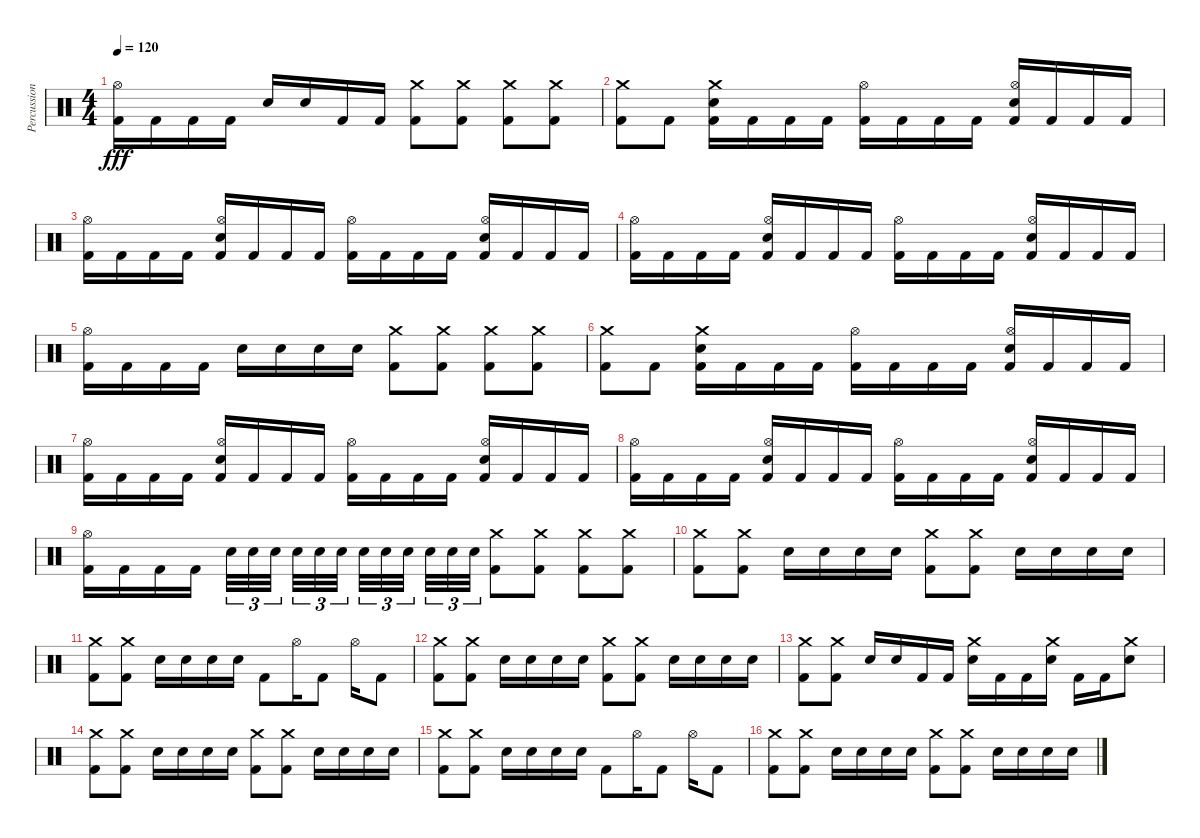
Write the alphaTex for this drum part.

\track ("Percussion" "Percussion") {instrument percussion}
\staff {score}
\articulation defaults
\ts (4 4)
\tempo 120
\clef neutral
\ks c
("Kick (hit) 2" "Hi-Hat (open)").16{dy fff} "Kick (hit) 2".16 "Kick (hit) 2".16 "Kick (hit) 2".16 "Electric Snare (hit)".16 "Electric Snare (hit)".16 "Kick (hit) 2".16 "Kick (hit) 2".16 ("Kick (hit) 2" "Crash medium (hit)").8 ("Kick (hit) 2" "Crash medium (hit)").8 ("Kick (hit) 2" "Crash medium (hit)").8 ("Kick (hit) 2" "Crash medium (hit)").8 |
("Kick (hit) 2" "Crash medium (hit)").8 "Kick (hit) 2".8 ("Kick (hit) 2" "Electric Snare (hit)" "Crash medium (hit)").16 "Kick (hit) 2".16 "Kick (hit) 2".16 "Kick (hit) 2".16 ("Kick (hit) 2" "Hi-Hat (open)").16 "Kick (hit) 2".16 "Kick (hit) 2".16 "Kick (hit) 2".16 ("Kick (hit) 2" "Electric Snare (hit)" "Hi-Hat (open)").16 "Kick (hit) 2".16 "Kick (hit) 2".16 "Kick (hit) 2".16 |
("Kick (hit) 2" "Hi-Hat (open)").16 "Kick (hit) 2".16 "Kick (hit) 2".16 "Kick (hit) 2".16 ("Kick (hit) 2" "Electric Snare (hit)" "Hi-Hat (open)").16 "Kick (hit) 2".16 "Kick (hit) 2".16 "Kick (hit) 2".16 ("Kick (hit) 2" "Hi-Hat (open)").16 "Kick (hit) 2".16 "Kick (hit) 2".16 "Kick (hit) 2".16 ("Kick (hit) 2" "Electric Snare (hit)" "Hi-Hat (open)").16 "Kick (hit) 2".16 "Kick (hit) 2".16 "Kick (hit) 2".16 |
("Kick (hit) 2" "Hi-Hat (open)").16 "Kick (hit) 2".16 "Kick (hit) 2".16 "Kick (hit) 2".16 ("Kick (hit) 2" "Electric Snare (hit)" "Hi-Hat (open)").16 "Kick (hit) 2".16 "Kick (hit) 2".16 "Kick (hit) 2".16 ("Kick (hit) 2" "Hi-Hat (open)").16 "Kick (hit) 2".16 "Kick (hit) 2".16 "Kick (hit) 2".16 ("Kick (hit) 2" "Electric Snare (hit)" "Hi-Hat (open)").16 "Kick (hit) 2".16 "Kick (hit) 2".16 "Kick (hit) 2".16 |
("Kick (hit) 2" "Hi-Hat (open)").16 "Kick (hit) 2".16 "Kick (hit) 2".16 "Kick (hit) 2".16 "Electric Snare (hit)".16 "Electric Snare (hit)".16 "Electric Snare (hit)".16 "Electric Snare (hit)".16 ("Kick (hit) 2" "Crash medium (hit)").8 ("Kick (hit) 2" "Crash medium (hit)").8 ("Kick (hit) 2" "Crash medium (hit)").8 ("Kick (hit) 2" "Crash medium (hit)").8 |
("Kick (hit) 2" "Crash medium (hit)").8 "Kick (hit) 2".8 ("Kick (hit) 2" "Electric Snare (hit)" "Crash medium (hit)").16 "Kick (hit) 2".16 "Kick (hit) 2".16 "Kick (hit) 2".16 ("Kick (hit) 2" "Hi-Hat (open)").16 "Kick (hit) 2".16 "Kick (hit) 2".16 "Kick (hit) 2".16 ("Kick (hit) 2" "Electric Snare (hit)" "Hi-Hat (open)").16 "Kick (hit) 2".16 "Kick (hit) 2".16 "Kick (hit) 2".16 |
("Kick (hit) 2" "Hi-Hat (open)").16 "Kick (hit) 2".16 "Kick (hit) 2".16 "Kick (hit) 2".16 ("Kick (hit) 2" "Electric Snare (hit)" "Hi-Hat (open)").16 "Kick (hit) 2".16 "Kick (hit) 2".16 "Kick (hit) 2".16 ("Kick (hit) 2" "Hi-Hat (open)").16 "Kick (hit) 2".16 "Kick (hit) 2".16 "Kick (hit) 2".16 ("Kick (hit) 2" "Electric Snare (hit)" "Hi-Hat (open)").16 "Kick (hit) 2".16 "Kick (hit) 2".16 "Kick (hit) 2".16 |
("Kick (hit) 2" "Hi-Hat (open)").16 "Kick (hit) 2".16 "Kick (hit) 2".16 "Kick (hit) 2".16 ("Kick (hit) 2" "Electric Snare (hit)" "Hi-Hat (open)").16 "Kick (hit) 2".16 "Kick (hit) 2".16 "Kick (hit) 2".16 ("Kick (hit) 2" "Hi-Hat (open)").16 "Kick (hit) 2".16 "Kick (hit) 2".16 "Kick (hit) 2".16 ("Kick (hit) 2" "Electric Snare (hit)" "Hi-Hat (open)").16 "Kick (hit) 2".16 "Kick (hit) 2".16 "Kick (hit) 2".16 |
("Kick (hit) 2" "Hi-Hat (open)").16 "Kick (hit) 2".16 "Kick (hit) 2".16 "Kick (hit) 2".16 "Electric Snare (hit)".32{tu (3 2)} "Electric Snare (hit)".32{tu (3 2)} "Electric Snare (hit)".32{tu (3 2)} "Electric Snare (hit)".32{tu (3 2)} "Electric Snare (hit)".32{tu (3 2)} "Electric Snare (hit)".32{tu (3 2)} "Electric Snare (hit)".32{tu (3 2)} "Electric Snare (hit)".32{tu (3 2)} "Electric Snare (hit)".32{tu (3 2)} "Electric Snare (hit)".32{tu (3 2)} "Electric Snare (hit)".32{tu (3 2)} "Electric Snare (hit)".32{tu (3 2)} ("Kick (hit) 2" "Crash medium (hit)").8 ("Kick (hit) 2" "Crash medium (hit)").8 ("Kick (hit) 2" "Crash medium (hit)").8 ("Kick (hit) 2" "Crash medium (hit)").8 |
("Kick (hit) 2" "Crash medium (hit)").8 ("Kick (hit) 2" "Crash medium (hit)").8 "Electric Snare (hit)".16 "Electric Snare (hit)".16 "Electric Snare (hit)".16 "Electric Snare (hit)".16 ("Kick (hit) 2" "Crash medium (hit)").8 ("Kick (hit) 2" "Crash medium (hit)").8 "Electric Snare (hit)".16 "Electric Snare (hit)".16 "Electric Snare (hit)".16 "Electric Snare (hit)".16 |
("Kick (hit) 2" "Crash medium (hit)").8 ("Kick (hit) 2" "Crash medium (hit)").8 "Electric Snare (hit)".16 "Electric Snare (hit)".16 "Electric Snare (hit)".16 "Electric Snare (hit)".16 "Kick (hit) 2".8 "Hi-Hat (open)".16 "Kick (hit) 2".8 "Hi-Hat (open)".16 "Kick (hit) 2".8 |
("Kick (hit) 2" "Crash medium (hit)").8 ("Kick (hit) 2" "Crash medium (hit)").8 "Electric Snare (hit)".16 "Electric Snare (hit)".16 "Electric Snare (hit)".16 "Electric Snare (hit)".16 ("Kick (hit) 2" "Crash medium (hit)").8 ("Kick (hit) 2" "Crash medium (hit)").8 "Electric Snare (hit)".16 "Electric Snare (hit)".16 "Electric Snare (hit)".16 "Electric Snare (hit)".16 |
("Kick (hit) 2" "Crash medium (hit)").8 ("Kick (hit) 2" "Crash medium (hit)").8 "Electric Snare (hit)".16 "Electric Snare (hit)".16 "Kick (hit) 2".16 "Kick (hit) 2".16 ("Electric Snare (hit)" "Crash medium (hit)").16 "Kick (hit) 2".16 "Kick (hit) 2".16 ("Electric Snare (hit)" "Crash medium (hit)").16 "Kick (hit) 2".16 "Kick (hit) 2".16 ("Electric Snare (hit)" "Crash medium (hit)").8 |
("Kick (hit) 2" "Crash medium (hit)").8 ("Kick (hit) 2" "Crash medium (hit)").8 "Electric Snare (hit)".16 "Electric Snare (hit)".16 "Electric Snare (hit)".16 "Electric Snare (hit)".16 ("Kick (hit) 2" "Crash medium (hit)").8 ("Kick (hit) 2" "Crash medium (hit)").8 "Electric Snare (hit)".16 "Electric Snare (hit)".16 "Electric Snare (hit)".16 "Electric Snare (hit)".16 |
("Kick (hit) 2" "Crash medium (hit)").8 ("Kick (hit) 2" "Crash medium (hit)").8 "Electric Snare (hit)".16 "Electric Snare (hit)".16 "Electric Snare (hit)".16 "Electric Snare (hit)".16 "Kick (hit) 2".8 "Hi-Hat (open)".16 "Kick (hit) 2".8 "Hi-Hat (open)".16 "Kick (hit) 2".8 |
("Kick (hit) 2" "Crash medium (hit)").8 ("Kick (hit) 2" "Crash medium (hit)").8 "Electric Snare (hit)".16 "Electric Snare (hit)".16 "Electric Snare (hit)".16 "Electric Snare (hit)".16 ("Kick (hit) 2" "Crash medium (hit)").8 ("Kick (hit) 2" "Crash medium (hit)").8 "Electric Snare (hit)".16 "Electric Snare (hit)".16 "Electric Snare (hit)".16 "Electric Snare (hit)".16
